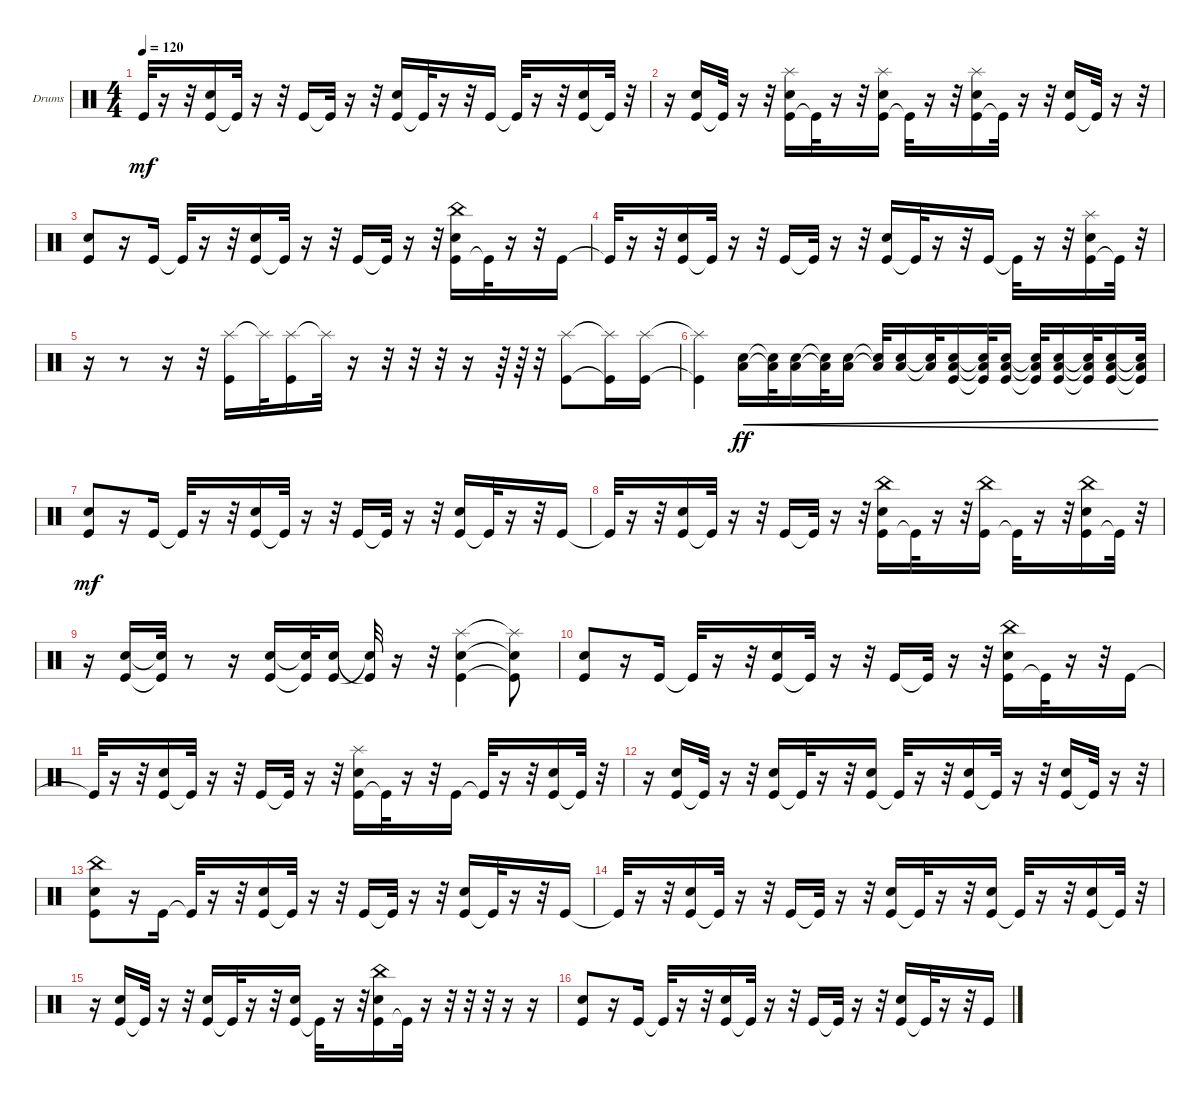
\defaultSystemsLayout 4
\bracketExtendMode groupsimilarinstruments
\firstSystemTrackNameOrientation horizontal
\otherSystemsTrackNameOrientation horizontal
\track ("Drumkit" "Drums") {instrument percussion}
\staff {score}
\articulation defaults
\ts (4 4)
\tempo 120
\clef neutral
\ks c "Kick (hit)"{t}.32{dy mf}
r.16 r.32 ("Kick (hit)" "Snare (hit) 2").16 "Kick (hit)"{t}.32 r.16 r.32 "Kick (hit)".16 "Kick (hit)"{t}.32 r.16 r.32 ("Kick (hit)" "Snare (hit) 2").16 "Kick (hit)"{t}.32 r.16 r.32 "Kick (hit)".16 "Kick (hit)"{t}.32 r.16 r.32 ("Kick (hit)" "Snare (hit) 2").16 "Kick (hit)"{t}.32 r.32 |
r.16 ("Kick (hit)" "Snare (hit) 2").16 "Kick (hit)"{t}.32 r.16 r.32 ("Kick (hit)" "Snare (hit) 2" "Splash (hit)").16 "Kick (hit)"{t}.32 r.16 r.32 ("Kick (hit)" "Snare (hit) 2" "Splash (hit)").16 "Kick (hit)"{t}.32 r.16 r.32 ("Kick (hit)" "Snare (hit) 2" "Splash (hit)").16 "Kick (hit)"{t}.32 r.16 r.32 ("Kick (hit)" "Snare (hit) 2").16 "Kick (hit)"{t}.32 r.16 r.32 |
("Kick (hit)" "Snare (hit) 2").8 r.16 "Kick (hit)".16 "Kick (hit)"{t}.32 r.16 r.32 ("Kick (hit)" "Snare (hit) 2").16 "Kick (hit)"{t}.32 r.16 r.32 "Kick (hit)".16 "Kick (hit)"{t}.32 r.16 r.32 ("Kick (hit)" "Snare (hit) 2" "China (hit)").16 "Kick (hit)"{t}.32 r.16 r.32 "Kick (hit)".16 |
"Kick (hit)"{t}.32 r.16 r.32 ("Kick (hit)" "Snare (hit) 2").16 "Kick (hit)"{t}.32 r.16 r.32 "Kick (hit)".16 "Kick (hit)"{t}.32 r.16 r.32 ("Kick (hit)" "Snare (hit) 2").16 "Kick (hit)"{t}.32 r.16 r.32 "Kick (hit)".16 "Kick (hit)"{t}.32 r.16 r.32 ("Kick (hit)" "Snare (hit) 2" "Splash (hit)").16 "Kick (hit)"{t}.32 r.32 |
r.16 r.8 r.16 r.32 ("Splash (hit)" "Kick (hit)").16 "Splash (hit)"{t}.32 ("Splash (hit)" "Kick (hit)").16 "Splash (hit)"{t}.32 r.16 r.32 r.32 r.32 r.16 r.64 r.64 r.32 ("Splash (hit)" "Kick (hit)").8 ("Splash (hit)"{t} "Kick (hit)"{t}).16 ("Splash (hit)" "Kick (hit)").16 |
("Splash (hit)"{t} "Kick (hit)"{t}).4 ("Snare (hit) 2" "Low Tom (hit)").16{cre dy ff} ("Snare (hit) 2"{t} "Low Tom (hit)"{t}).32{cre} ("Snare (hit) 2" "Low Tom (hit)").16{cre} ("Snare (hit) 2"{t} "Low Tom (hit)"{t}).32{cre} ("Snare (hit) 2" "Low Tom (hit)").16{cre} ("Snare (hit) 2"{t} "Low Tom (hit)"{t}).32{cre} ("Snare (hit) 2" "Low Tom (hit)").16{cre} ("Snare (hit) 2"{t} "Low Tom (hit)"{t}).32{cre} ("Kick (hit)" "Snare (hit) 2" "Low Tom (hit)").16{cre} ("Kick (hit)"{t} "Snare (hit) 2"{t} "Low Tom (hit)"{t}).32{cre} ("Kick (hit)" "Snare (hit) 2" "Low Tom (hit)").16{cre} ("Kick (hit)"{t} "Snare (hit) 2"{t} "Low Tom (hit)"{t}).32{cre} ("Kick (hit)" "Snare (hit) 2" "Low Tom (hit)").16{cre} ("Kick (hit)"{t} "Snare (hit) 2"{t} "Low Tom (hit)"{t}).32{cre} ("Kick (hit)" "Snare (hit) 2" "Low Tom (hit)").16{cre} ("Kick (hit)"{t} "Snare (hit) 2"{t} "Low Tom (hit)"{t}).32{cre} |
("Kick (hit)" "Snare (hit) 2").8{dy mf} r.16 "Kick (hit)".16 "Kick (hit)"{t}.32 r.16 r.32 ("Kick (hit)" "Snare (hit) 2").16 "Kick (hit)"{t}.32 r.16 r.32 "Kick (hit)".16 "Kick (hit)"{t}.32 r.16 r.32 ("Kick (hit)" "Snare (hit) 2").16 "Kick (hit)"{t}.32 r.16 r.32 "Kick (hit)".16 |
"Kick (hit)"{t}.32 r.16 r.32 ("Kick (hit)" "Snare (hit) 2").16 "Kick (hit)"{t}.32 r.16 r.32 "Kick (hit)".16 "Kick (hit)"{t}.32 r.16 r.32 ("Kick (hit)" "Snare (hit) 2" "China (hit)").16 "Kick (hit)"{t}.32 r.16 r.32 ("Kick (hit)" "China (hit)").16 "Kick (hit)"{t}.32 r.16 r.32 ("Kick (hit)" "Snare (hit) 2" "China (hit)").16 "Kick (hit)"{t}.32 r.32 |
r.16 ("Snare (hit) 2" "Kick (hit)").16 ("Snare (hit) 2"{t} "Kick (hit)"{t}).32 r.8 r.16 ("Snare (hit) 2" "Kick (hit)").16 ("Snare (hit) 2"{t} "Kick (hit)"{t}).32 ("Kick (hit)" "Snare (hit) 2").16 ("Snare (hit) 2"{t} "Kick (hit)"{t}).32 r.16 r.32 ("Snare (hit) 2" "Kick (hit)" "Splash (hit)").4 ("Snare (hit) 2"{t} "Kick (hit)"{t} "Splash (hit)"{t}).8 |
("Kick (hit)" "Snare (hit) 2").8 r.16 "Kick (hit)".16 "Kick (hit)"{t}.32 r.16 r.32 ("Kick (hit)" "Snare (hit) 2").16 "Kick (hit)"{t}.32 r.16 r.32 "Kick (hit)".16 "Kick (hit)"{t}.32 r.16 r.32 ("Kick (hit)" "Snare (hit) 2" "China (hit)").16 "Kick (hit)"{t}.32 r.16 r.32 "Kick (hit)".16 |
"Kick (hit)"{t}.32 r.16 r.32 ("Kick (hit)" "Snare (hit) 2").16 "Kick (hit)"{t}.32 r.16 r.32 "Kick (hit)".16 "Kick (hit)"{t}.32 r.16 r.32 ("Kick (hit)" "Snare (hit) 2" "Splash (hit)").16 "Kick (hit)"{t}.32 r.16 r.32 "Kick (hit)".16 "Kick (hit)"{t}.32 r.16 r.32 ("Kick (hit)" "Snare (hit) 2").16 "Kick (hit)"{t}.32 r.32 |
r.16 ("Kick (hit)" "Snare (hit) 2").16 "Kick (hit)"{t}.32 r.16 r.32 ("Kick (hit)" "Snare (hit) 2").16 "Kick (hit)"{t}.32 r.16 r.32 ("Kick (hit)" "Snare (hit) 2").16 "Kick (hit)"{t}.32 r.16 r.32 ("Kick (hit)" "Snare (hit) 2").16 "Kick (hit)"{t}.32 r.16 r.32 ("Kick (hit)" "Snare (hit) 2").16 "Kick (hit)"{t}.32 r.16 r.32 |
("Kick (hit)" "Snare (hit) 2" "China (hit)").8 r.16 "Kick (hit)".16 "Kick (hit)"{t}.32 r.16 r.32 ("Kick (hit)" "Snare (hit) 2").16 "Kick (hit)"{t}.32 r.16 r.32 "Kick (hit)".16 "Kick (hit)"{t}.32 r.16 r.32 ("Kick (hit)" "Snare (hit) 2").16 "Kick (hit)"{t}.32 r.16 r.32 "Kick (hit)".16 |
"Kick (hit)"{t}.32 r.16 r.32 ("Kick (hit)" "Snare (hit) 2").16 "Kick (hit)"{t}.32 r.16 r.32 "Kick (hit)".16 "Kick (hit)"{t}.32 r.16 r.32 ("Kick (hit)" "Snare (hit) 2").16 "Kick (hit)"{t}.32 r.16 r.32 ("Kick (hit)" "Snare (hit) 2").16 "Kick (hit)"{t}.32 r.16 r.32 ("Kick (hit)" "Snare (hit) 2").16 "Kick (hit)"{t}.32 r.32 |
r.16 ("Kick (hit)" "Snare (hit) 2").16 "Kick (hit)"{t}.32 r.16 r.32 ("Kick (hit)" "Snare (hit) 2").16 "Kick (hit)"{t}.32 r.16 r.32 ("Kick (hit)" "Snare (hit) 2").16 "Kick (hit)"{t}.32 r.16 r.32 ("Kick (hit)" "Snare (hit) 2" "China (hit)").16 "Kick (hit)"{t}.32 r.16 r.32 r.32 r.32 r.16 r.16 |
("Kick (hit)" "Snare (hit) 2").8 r.16 "Kick (hit)".16 "Kick (hit)"{t}.32 r.16 r.32 ("Kick (hit)" "Snare (hit) 2").16 "Kick (hit)"{t}.32 r.16 r.32 "Kick (hit)".16 "Kick (hit)"{t}.32 r.16 r.32 ("Kick (hit)" "Snare (hit) 2").16 "Kick (hit)"{t}.32 r.16 r.32 "Kick (hit)".16
